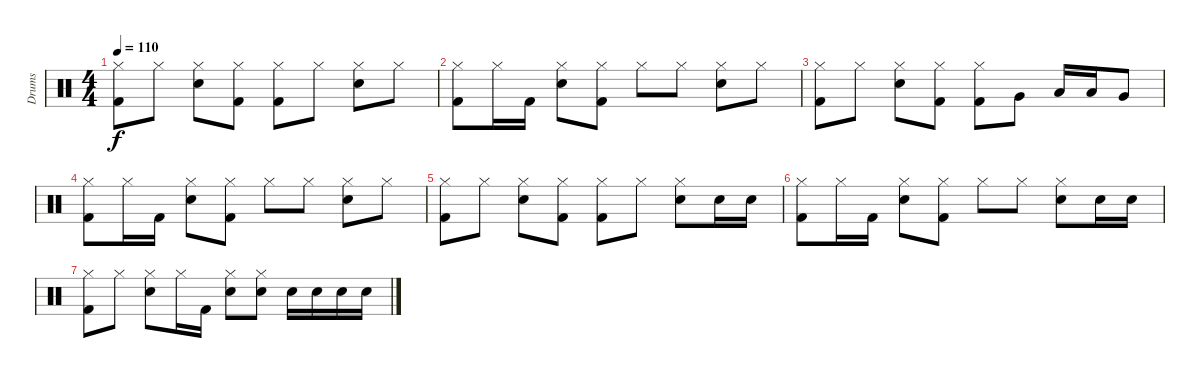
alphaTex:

\track ("Drums" "Drums") {instrument percussion}
\staff {score}
\articulation defaults
\ts (4 4)
\tempo 110
\clef neutral
\ks c
("Hi-Hat (closed)" "Kick (hit) 2").8{dy f} "Hi-Hat (closed)".8 ("Hi-Hat (closed)" "Snare (hit) 2").8 ("Hi-Hat (closed)" "Kick (hit) 2").8 ("Hi-Hat (closed)" "Kick (hit) 2").8 "Hi-Hat (closed)".8 ("Hi-Hat (closed)" "Snare (hit) 2").8 "Hi-Hat (closed)".8 |
("Hi-Hat (closed)" "Kick (hit) 2").8 "Hi-Hat (closed)".16 "Kick (hit) 2".16 ("Hi-Hat (closed)" "Snare (hit) 2").8 ("Hi-Hat (closed)" "Kick (hit) 2").8 "Hi-Hat (closed)".8 "Hi-Hat (closed)".8 ("Hi-Hat (closed)" "Snare (hit) 2").8 "Hi-Hat (closed)".8 |
("Hi-Hat (closed)" "Kick (hit) 2").8 "Hi-Hat (closed)".8 ("Hi-Hat (closed)" "Snare (hit) 2").8 ("Hi-Hat (closed)" "Kick (hit) 2").8 ("Hi-Hat (closed)" "Kick (hit) 2").8 "Very Low Tom (hit)".8 "Low Tom (hit)".16 "Low Tom (hit)".16 "Very Low Tom (hit)".8 |
("Hi-Hat (closed)" "Kick (hit) 2").8 "Hi-Hat (closed)".16 "Kick (hit) 2".16 ("Hi-Hat (closed)" "Snare (hit) 2").8 ("Hi-Hat (closed)" "Kick (hit) 2").8 "Hi-Hat (closed)".8 "Hi-Hat (closed)".8 ("Hi-Hat (closed)" "Snare (hit) 2").8 "Hi-Hat (closed)".8 |
("Hi-Hat (closed)" "Kick (hit) 2").8 "Hi-Hat (closed)".8 ("Hi-Hat (closed)" "Snare (hit) 2").8 ("Hi-Hat (closed)" "Kick (hit) 2").8 ("Hi-Hat (closed)" "Kick (hit) 2").8 "Hi-Hat (closed)".8 ("Hi-Hat (closed)" "Snare (hit) 2").8 "Snare (hit) 2".16 "Snare (hit) 2".16 |
("Hi-Hat (closed)" "Kick (hit) 2").8 "Hi-Hat (closed)".16 "Kick (hit) 2".16 ("Hi-Hat (closed)" "Snare (hit) 2").8 ("Hi-Hat (closed)" "Kick (hit) 2").8 "Hi-Hat (closed)".8 "Hi-Hat (closed)".8 ("Hi-Hat (closed)" "Snare (hit) 2").8 "Snare (hit) 2".16 "Snare (hit) 2".16 |
("Hi-Hat (closed)" "Kick (hit) 2").8 "Hi-Hat (closed)".8 ("Hi-Hat (closed)" "Snare (hit) 2").8 "Hi-Hat (closed)".16 "Kick (hit) 2".16 ("Hi-Hat (closed)" "Snare (hit) 2").8 ("Hi-Hat (closed)" "Snare (hit) 2").8 "Snare (hit) 2".16 "Snare (hit) 2".16 "Snare (hit) 2".16 "Snare (hit) 2".16
